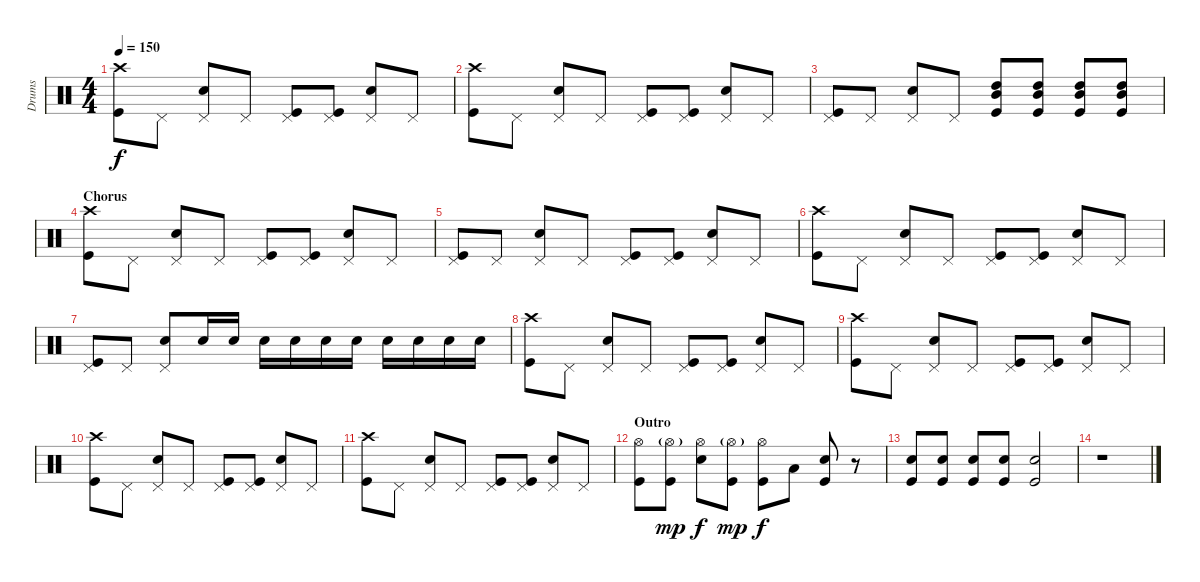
\track ("Drums" "Drums") {instrument percussion}
\staff {score}
\articulation defaults
\ts (4 4)
\tempo 150
\clef neutral
\ks c
("Crash high (hit)" "Kick (hit)").8{dy f} "Pedal Hi-Hat (hit)".8 ("Pedal Hi-Hat (hit)" "Snare (hit) 2").8 "Pedal Hi-Hat (hit)".8 ("Pedal Hi-Hat (hit)" "Kick (hit)").8 ("Pedal Hi-Hat (hit)" "Kick (hit)").8 ("Pedal Hi-Hat (hit)" "Snare (hit) 2").8 "Pedal Hi-Hat (hit)".8 |
("Crash high (hit)" "Kick (hit)").8 "Pedal Hi-Hat (hit)".8 ("Pedal Hi-Hat (hit)" "Snare (hit) 2").8 "Pedal Hi-Hat (hit)".8 ("Pedal Hi-Hat (hit)" "Kick (hit)").8 ("Pedal Hi-Hat (hit)" "Kick (hit)").8 ("Pedal Hi-Hat (hit)" "Snare (hit) 2").8 "Pedal Hi-Hat (hit)".8 |
("Pedal Hi-Hat (hit)" "Kick (hit)").8 "Pedal Hi-Hat (hit)".8 ("Pedal Hi-Hat (hit)" "Snare (hit) 2").8 "Pedal Hi-Hat (hit)".8 ("High Tom (hit)" "Kick (hit)" "Mid Tom (hit)").8 ("High Tom (hit)" "Kick (hit)" "Mid Tom (hit)").8 ("High Tom (hit)" "Kick (hit)" "Mid Tom (hit)").8 ("High Tom (hit)" "Kick (hit)" "Mid Tom (hit)").8 |
\section ("" "Chorus")
("Crash high (hit)" "Kick (hit)").8 "Pedal Hi-Hat (hit)".8 ("Pedal Hi-Hat (hit)" "Snare (hit) 2").8 "Pedal Hi-Hat (hit)".8 ("Pedal Hi-Hat (hit)" "Kick (hit)").8 ("Pedal Hi-Hat (hit)" "Kick (hit)").8 ("Pedal Hi-Hat (hit)" "Snare (hit) 2").8 "Pedal Hi-Hat (hit)".8 |
("Pedal Hi-Hat (hit)" "Kick (hit)").8 "Pedal Hi-Hat (hit)".8 ("Pedal Hi-Hat (hit)" "Snare (hit) 2").8 "Pedal Hi-Hat (hit)".8 ("Pedal Hi-Hat (hit)" "Kick (hit)").8 ("Pedal Hi-Hat (hit)" "Kick (hit)").8 ("Pedal Hi-Hat (hit)" "Snare (hit) 2").8 "Pedal Hi-Hat (hit)".8 |
("Crash high (hit)" "Kick (hit)").8 "Pedal Hi-Hat (hit)".8 ("Pedal Hi-Hat (hit)" "Snare (hit) 2").8 "Pedal Hi-Hat (hit)".8 ("Pedal Hi-Hat (hit)" "Kick (hit)").8 ("Pedal Hi-Hat (hit)" "Kick (hit)").8 ("Pedal Hi-Hat (hit)" "Snare (hit) 2").8 "Pedal Hi-Hat (hit)".8 |
("Pedal Hi-Hat (hit)" "Kick (hit)").8 "Pedal Hi-Hat (hit)".8 ("Pedal Hi-Hat (hit)" "Snare (hit) 2").8 "Snare (hit) 2".16 "Snare (hit) 2".16 "Snare (hit) 2".16 "Snare (hit) 2".16 "Snare (hit) 2".16 "Snare (hit) 2".16 "Snare (hit) 2".16 "Snare (hit) 2".16 "Snare (hit) 2".16 "Snare (hit) 2".16 |
("Crash high (hit)" "Kick (hit)").8 "Pedal Hi-Hat (hit)".8 ("Pedal Hi-Hat (hit)" "Snare (hit) 2").8 "Pedal Hi-Hat (hit)".8 ("Pedal Hi-Hat (hit)" "Kick (hit)").8 ("Pedal Hi-Hat (hit)" "Kick (hit)").8 ("Pedal Hi-Hat (hit)" "Snare (hit) 2").8 "Pedal Hi-Hat (hit)".8 |
("Crash high (hit)" "Kick (hit)").8 "Pedal Hi-Hat (hit)".8 ("Pedal Hi-Hat (hit)" "Snare (hit) 2").8 "Pedal Hi-Hat (hit)".8 ("Pedal Hi-Hat (hit)" "Kick (hit)").8 ("Pedal Hi-Hat (hit)" "Kick (hit)").8 ("Pedal Hi-Hat (hit)" "Snare (hit) 2").8 "Pedal Hi-Hat (hit)".8 |
("Crash high (hit)" "Kick (hit)").8 "Pedal Hi-Hat (hit)".8 ("Pedal Hi-Hat (hit)" "Snare (hit) 2").8 "Pedal Hi-Hat (hit)".8 ("Pedal Hi-Hat (hit)" "Kick (hit)").8 ("Pedal Hi-Hat (hit)" "Kick (hit)").8 ("Pedal Hi-Hat (hit)" "Snare (hit) 2").8 "Pedal Hi-Hat (hit)".8 |
("Crash high (hit)" "Kick (hit)").8 "Pedal Hi-Hat (hit)".8 ("Pedal Hi-Hat (hit)" "Snare (hit) 2").8 "Pedal Hi-Hat (hit)".8 ("Pedal Hi-Hat (hit)" "Kick (hit)").8 ("Pedal Hi-Hat (hit)" "Kick (hit)").8 ("Pedal Hi-Hat (hit)" "Snare (hit) 2").8 "Pedal Hi-Hat (hit)".8 |
\section ("" "Outro")
("Hi-Hat (open)" "Kick (hit)").8 ("Hi-Hat (open)"{g} "Kick (hit)").8{dy mp} ("Hi-Hat (open)" "Snare (hit) 2").8{dy f} ("Hi-Hat (open)"{g} "Kick (hit)").8{dy mp} ("Hi-Hat (open)" "Kick (hit)").8{dy f} "Low Floor Tom (hit)".8 ("Snare (hit) 2" "Kick (hit)").8 r.8 |
("Kick (hit)" "Snare (hit) 2").8 ("Kick (hit)" "Snare (hit) 2").8 ("Kick (hit)" "Snare (hit) 2").8 ("Kick (hit)" "Snare (hit) 2").8 ("Kick (hit)" "Snare (hit) 2").2 |
r.1
